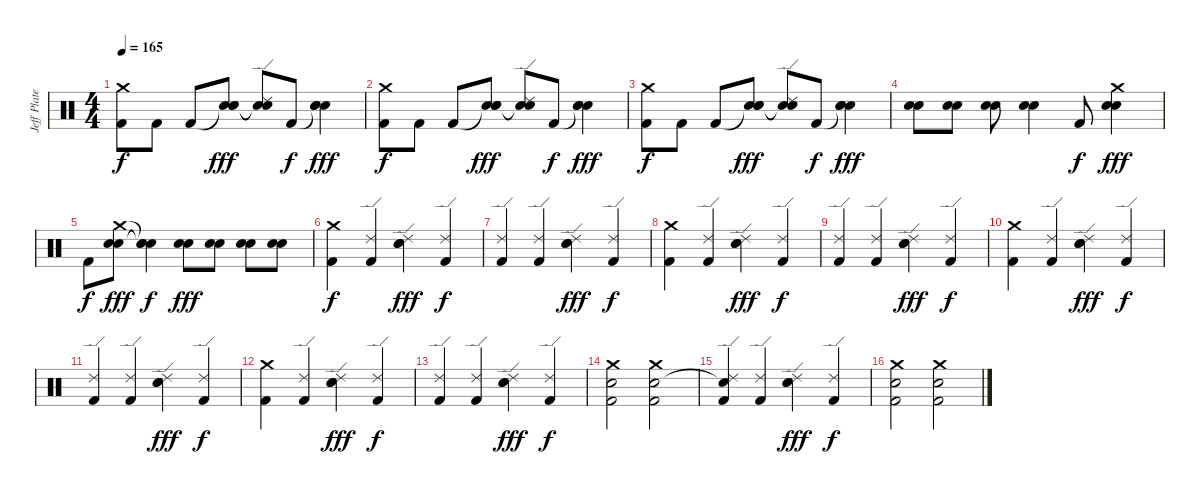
\track ("Jeff Plate" "Jeff Plate") {instrument percussion}
\staff {score}
\articulation defaults
\ts (4 4)
\tempo 165
\clef neutral
\ks c
("Crash medium (hit)" "Kick (hit) 2").8{dy f} "Kick (hit) 2".8 "Kick (hit) 2".8 ("Snare (hit)"{t} "Electric Snare (hit)" "Electric Snare (hit)").8{dy fff} ("Ride (edge) 2" "Snare (hit)"{t} "Snare (hit)"{t}).8 "Kick (hit) 2".8{dy f} ("Snare (hit)"{t} "Electric Snare (hit)" "Electric Snare (hit)").4{dy fff} |
("Crash medium (hit)" "Kick (hit) 2").8{dy f} "Kick (hit) 2".8 "Kick (hit) 2".8 ("Snare (hit)"{t} "Electric Snare (hit)" "Electric Snare (hit)").8{dy fff} ("Ride (edge) 2" "Snare (hit)"{t} "Snare (hit)"{t}).8 "Kick (hit) 2".8{dy f} ("Snare (hit)"{t} "Electric Snare (hit)" "Electric Snare (hit)").4{dy fff} |
("Crash medium (hit)" "Kick (hit) 2").8{dy f} "Kick (hit) 2".8 "Kick (hit) 2".8 ("Snare (hit)"{t} "Electric Snare (hit)" "Electric Snare (hit)").8{dy fff} ("Ride (edge) 2" "Snare (hit)"{t} "Snare (hit)"{t}).8 "Kick (hit) 2".8{dy f} ("Snare (hit)"{t} "Electric Snare (hit)" "Electric Snare (hit)").4{dy fff} |
("Electric Snare (hit)" "Electric Snare (hit)").8 ("Electric Snare (hit)" "Electric Snare (hit)").8 ("Electric Snare (hit)" "Electric Snare (hit)").8 ("Electric Snare (hit)" "Electric Snare (hit)").4 "Kick (hit) 2".8{dy f} ("Crash medium (hit)" "Electric Snare (hit)" "Electric Snare (hit)").4{dy fff} |
"Kick (hit) 2".8{dy f} ("Crash medium (hit)" "Electric Snare (hit)" "Electric Snare (hit)").8{dy fff} ("Snare (hit)"{t} "Snare (hit)"{t} "Snare (hit)"{t}).4{dy f} ("Electric Snare (hit)" "Electric Snare (hit)").8{dy fff} ("Electric Snare (hit)" "Electric Snare (hit)").8 ("Electric Snare (hit)" "Electric Snare (hit)").8 ("Electric Snare (hit)" "Electric Snare (hit)").8 |
("Crash medium (hit)" "Kick (hit) 2").4{dy f} ("Ride (edge) 2" "Kick (hit) 2").4 ("Ride (edge) 2" "Electric Snare (hit)" "Electric Snare (hit)").4{dy fff} ("Ride (edge) 2" "Kick (hit) 2").4{dy f} |
("Ride (edge) 2" "Kick (hit) 2").4 ("Ride (edge) 2" "Kick (hit) 2").4 ("Ride (edge) 2" "Electric Snare (hit)" "Electric Snare (hit)").4{dy fff} ("Ride (edge) 2" "Kick (hit) 2").4{dy f} |
("Crash medium (hit)" "Kick (hit) 2").4 ("Ride (edge) 2" "Kick (hit) 2").4 ("Ride (edge) 2" "Electric Snare (hit)" "Electric Snare (hit)").4{dy fff} ("Ride (edge) 2" "Kick (hit) 2").4{dy f} |
("Ride (edge) 2" "Kick (hit) 2").4 ("Ride (edge) 2" "Kick (hit) 2").4 ("Ride (edge) 2" "Electric Snare (hit)" "Electric Snare (hit)").4{dy fff} ("Ride (edge) 2" "Kick (hit) 2").4{dy f} |
("Crash medium (hit)" "Kick (hit) 2").4 ("Ride (edge) 2" "Kick (hit) 2").4 ("Ride (edge) 2" "Electric Snare (hit)" "Electric Snare (hit)").4{dy fff} ("Ride (edge) 2" "Kick (hit) 2").4{dy f} |
("Ride (edge) 2" "Kick (hit) 2").4 ("Ride (edge) 2" "Kick (hit) 2").4 ("Ride (edge) 2" "Electric Snare (hit)" "Electric Snare (hit)").4{dy fff} ("Ride (edge) 2" "Kick (hit) 2").4{dy f} |
("Crash medium (hit)" "Kick (hit) 2").4 ("Ride (edge) 2" "Kick (hit) 2").4 ("Ride (edge) 2" "Electric Snare (hit)" "Electric Snare (hit)").4{dy fff} ("Ride (edge) 2" "Kick (hit) 2").4{dy f} |
("Ride (edge) 2" "Kick (hit) 2").4 ("Ride (edge) 2" "Kick (hit) 2").4 ("Ride (edge) 2" "Electric Snare (hit)" "Electric Snare (hit)").4{dy fff} ("Ride (edge) 2" "Kick (hit) 2").4{dy f} |
("Crash medium (hit)" "Electric Snare (hit)" "Kick (hit) 2").2 ("Crash medium (hit)" "Electric Snare (hit)" "Kick (hit) 2").2 |
("Ride (edge) 2" "Snare (hit)"{t} "Kick (hit) 2").4 ("Ride (edge) 2" "Kick (hit) 2").4 ("Ride (edge) 2" "Electric Snare (hit)" "Electric Snare (hit)").4{dy fff} ("Ride (edge) 2" "Kick (hit) 2").4{dy f} |
("Crash medium (hit)" "Electric Snare (hit)" "Kick (hit) 2").2 ("Crash medium (hit)" "Electric Snare (hit)" "Kick (hit) 2").2
